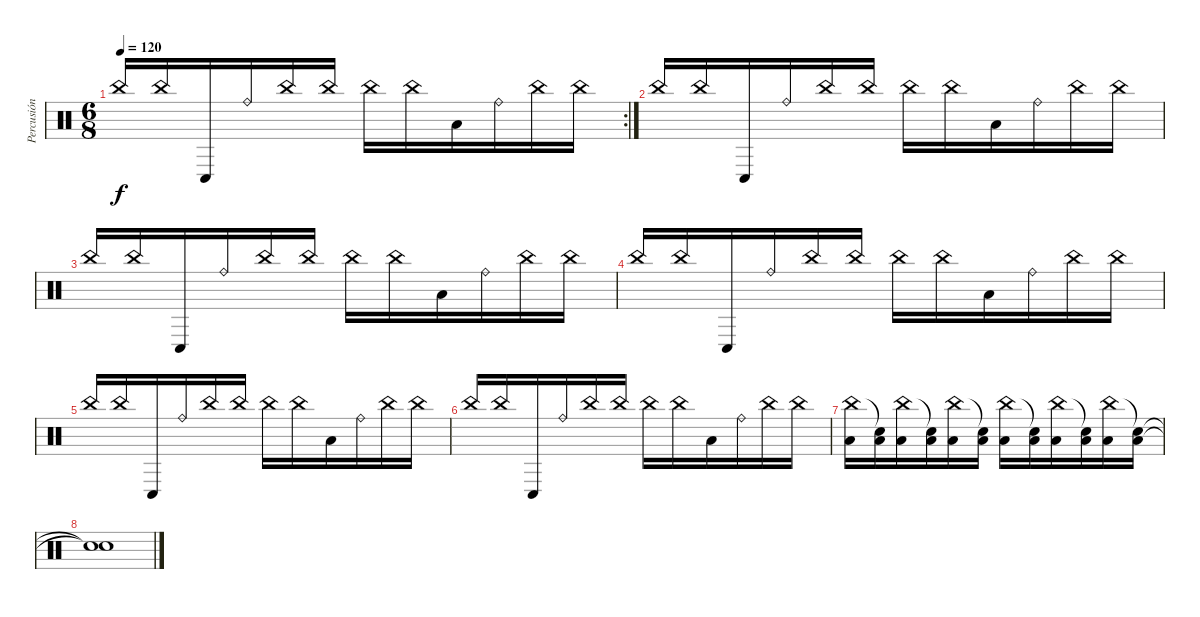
\track ("Percusión" "Percusión") {instrument percussion}
\staff {score}
\articulation defaults
\rc 2
\ts (6 8)
\tempo 120
\clef neutral
\ks c "China (hit)".16{dy f} "China (hit)".16 "Conga low (hit)".16 "Ride (bell)".16 "China (hit)".16 "China (hit)".16 "China (hit)".16 "China (hit)".16 "Low Tom (hit)".16 "Ride (bell)".16 "China (hit)".16 "China (hit)".16
|
"China (hit)".16 "China (hit)".16 "Conga low (hit)".16 "Ride (bell)".16 "China (hit)".16 "China (hit)".16 "China (hit)".16 "China (hit)".16 "Low Tom (hit)".16 "Ride (bell)".16 "China (hit)".16 "China (hit)".16 |
"China (hit)".16 "China (hit)".16 "Conga low (hit)".16 "Ride (bell)".16 "China (hit)".16 "China (hit)".16 "China (hit)".16 "China (hit)".16 "Low Tom (hit)".16 "Ride (bell)".16 "China (hit)".16 "China (hit)".16 |
"China (hit)".16 "China (hit)".16 "Conga low (hit)".16 "Ride (bell)".16 "China (hit)".16 "China (hit)".16 "China (hit)".16 "China (hit)".16 "Low Tom (hit)".16 "Ride (bell)".16 "China (hit)".16 "China (hit)".16 |
"China (hit)".16 "China (hit)".16 "Conga low (hit)".16 "Ride (bell)".16 "China (hit)".16 "China (hit)".16 "China (hit)".16 "China (hit)".16 "Low Tom (hit)".16 "Ride (bell)".16 "China (hit)".16 "China (hit)".16 |
"China (hit)".16 "China (hit)".16 "Conga low (hit)".16 "Ride (bell)".16 "China (hit)".16 "China (hit)".16 "China (hit)".16 "China (hit)".16 "Low Tom (hit)".16 "Ride (bell)".16 "China (hit)".16 "China (hit)".16 |
("Low Tom (hit)" "China (hit)").16 ("Low Tom (hit)" "Snare (hit)"{t}).16 ("Low Tom (hit)" "China (hit)").16 ("Low Tom (hit)" "Snare (hit)"{t}).16 ("Low Tom (hit)" "China (hit)").16 ("Low Tom (hit)" "Snare (hit)"{t}).16 ("Low Tom (hit)" "China (hit)").16 ("Low Tom (hit)" "Snare (hit)"{t}).16 ("Low Tom (hit)" "China (hit)").16 ("Low Tom (hit)" "Snare (hit)"{t}).16 ("Low Tom (hit)" "China (hit)").16 ("Low Tom (hit)" "Snare (hit)"{t}).16 |
("Snare (hit)"{t} "Snare (hit)"{t}).1
